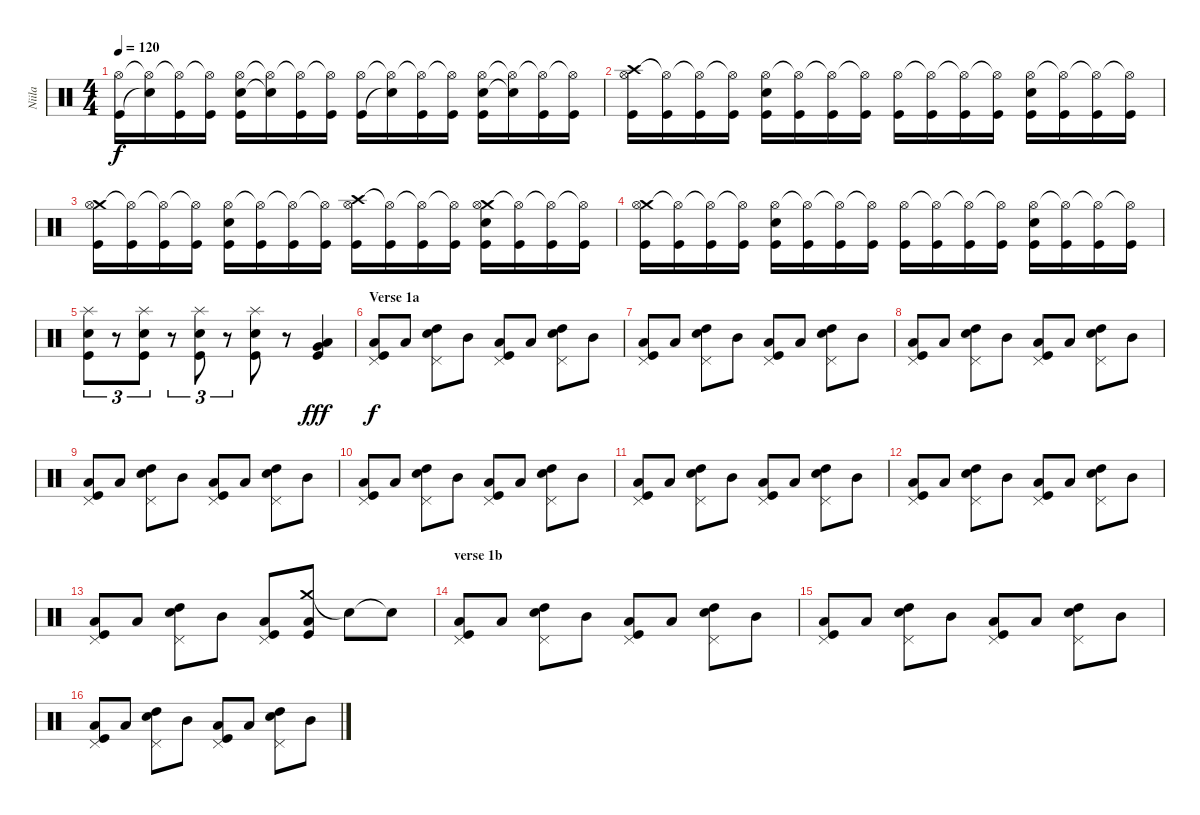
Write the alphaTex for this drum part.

\track ("Niila" "Niila") {instrument percussion}
\staff {score}
\articulation defaults
\ts (4 4)
\tempo 120
\clef neutral
\ks c
("Hi-Hat (open)" "Kick (hit)").16{dy f} ("Hi-Hat (open)"{t} "Snare (hit)"{t}).16 ("Hi-Hat (open)"{t} "Kick (hit)").16 ("Hi-Hat (open)"{t} "Kick (hit)").16 ("Hi-Hat (open)" "Snare (hit) 2" "Kick (hit)").16 ("Hi-Hat (open)"{t} "Snare (hit)"{t}).16 ("Hi-Hat (open)"{t} "Kick (hit)").16 ("Hi-Hat (open)"{t} "Kick (hit)").16 ("Hi-Hat (open)" "Kick (hit)").16 ("Hi-Hat (open)"{t} "Snare (hit)"{t}).16 ("Hi-Hat (open)"{t} "Kick (hit)").16 ("Hi-Hat (open)"{t} "Kick (hit)").16 ("Hi-Hat (open)" "Snare (hit) 2" "Kick (hit)").16 ("Hi-Hat (open)"{t} "Snare (hit)"{t}).16 ("Hi-Hat (open)"{t} "Kick (hit)").16 ("Hi-Hat (open)"{t} "Kick (hit)").16 |
("Crash high (hit)" "Hi-Hat (open)" "Kick (hit)").16 ("Hi-Hat (open)"{t} "Kick (hit)").16 ("Hi-Hat (open)"{t} "Kick (hit)").16 ("Hi-Hat (open)"{t} "Kick (hit)").16 ("Hi-Hat (open)" "Snare (hit) 2" "Kick (hit)").16 ("Hi-Hat (open)"{t} "Kick (hit)").16 ("Hi-Hat (open)"{t} "Kick (hit)").16 ("Hi-Hat (open)"{t} "Kick (hit)").16 ("Hi-Hat (open)" "Kick (hit)").16 ("Hi-Hat (open)"{t} "Kick (hit)").16 ("Hi-Hat (open)"{t} "Kick (hit)").16 ("Hi-Hat (open)"{t} "Kick (hit)").16 ("Hi-Hat (open)" "Snare (hit) 2" "Kick (hit)").16 ("Hi-Hat (open)"{t} "Kick (hit)").16 ("Hi-Hat (open)"{t} "Kick (hit)").16 ("Hi-Hat (open)"{t} "Kick (hit)").16 |
("Crash medium (hit)" "Hi-Hat (open)" "Kick (hit)").16 ("Hi-Hat (open)"{t} "Kick (hit)").16 ("Hi-Hat (open)"{t} "Kick (hit)").16 ("Hi-Hat (open)"{t} "Kick (hit)").16 ("Hi-Hat (open)" "Snare (hit) 2" "Kick (hit)").16 ("Hi-Hat (open)"{t} "Kick (hit)").16 ("Hi-Hat (open)"{t} "Kick (hit)").16 ("Hi-Hat (open)"{t} "Kick (hit)").16 ("Crash high (hit)" "Hi-Hat (open)" "Kick (hit)").16 ("Hi-Hat (open)"{t} "Kick (hit)").16 ("Hi-Hat (open)"{t} "Kick (hit)").16 ("Hi-Hat (open)"{t} "Kick (hit)").16 ("Crash medium (hit)" "Hi-Hat (open)" "Snare (hit) 2" "Kick (hit)").16 ("Hi-Hat (open)"{t} "Kick (hit)").16 ("Hi-Hat (open)"{t} "Kick (hit)").16 ("Hi-Hat (open)"{t} "Kick (hit)").16 |
("Crash medium (hit)" "Hi-Hat (open)" "Kick (hit)").16 ("Hi-Hat (open)"{t} "Kick (hit)").16 ("Hi-Hat (open)"{t} "Kick (hit)").16 ("Hi-Hat (open)"{t} "Kick (hit)").16 ("Hi-Hat (open)" "Snare (hit) 2" "Kick (hit)").16 ("Hi-Hat (open)"{t} "Kick (hit)").16 ("Hi-Hat (open)"{t} "Kick (hit)").16 ("Hi-Hat (open)"{t} "Kick (hit)").16 ("Hi-Hat (open)" "Kick (hit)").16 ("Hi-Hat (open)"{t} "Kick (hit)").16 ("Hi-Hat (open)"{t} "Kick (hit)").16 ("Hi-Hat (open)"{t} "Kick (hit)").16 ("Hi-Hat (open)" "Snare (hit) 2" "Kick (hit)").16 ("Hi-Hat (open)"{t} "Kick (hit)").16 ("Hi-Hat (open)"{t} "Kick (hit)").16 ("Hi-Hat (open)"{t} "Kick (hit)").16 |
("Splash (hit)" "Snare (hit) 2" "Kick (hit)").8{tu (3 2)} r.8{tu (3 2)} ("Splash (hit)" "Snare (hit) 2" "Kick (hit)").8{tu (3 2)} r.8{tu (3 2)} ("Splash (hit)" "Snare (hit) 2" "Kick (hit)").8{tu (3 2)} r.8{tu (3 2)} ("Splash (hit)" "Snare (hit) 2" "Kick (hit)").8 r.8 ("Low Tom (hit)" "Kick (hit)" "Very Low Tom (hit)").4{dy fff volume 10} |
\section ("" "Verse 1a")
("Pedal Hi-Hat (hit)" "Low Tom (hit)" "Kick (hit)").8{dy f volume 10} "Low Tom (hit)".8 ("Pedal Hi-Hat (hit)" "High Tom (hit)" "Snare (hit) 2").8 "Mid Tom (hit)".8 ("Pedal Hi-Hat (hit)" "Low Tom (hit)" "Kick (hit)").8 "Low Tom (hit)".8 ("Pedal Hi-Hat (hit)" "High Tom (hit)" "Snare (hit) 2").8 "Mid Tom (hit)".8 |
("Pedal Hi-Hat (hit)" "Low Tom (hit)" "Kick (hit)").8{volume 10} "Low Tom (hit)".8 ("Pedal Hi-Hat (hit)" "High Tom (hit)" "Snare (hit) 2").8 "Mid Tom (hit)".8 ("Pedal Hi-Hat (hit)" "Low Tom (hit)" "Kick (hit)").8 "Low Tom (hit)".8 ("Pedal Hi-Hat (hit)" "High Tom (hit)" "Snare (hit) 2").8 "Mid Tom (hit)".8 |
("Pedal Hi-Hat (hit)" "Low Tom (hit)" "Kick (hit)").8{volume 10} "Low Tom (hit)".8 ("Pedal Hi-Hat (hit)" "High Tom (hit)" "Snare (hit) 2").8 "Mid Tom (hit)".8 ("Pedal Hi-Hat (hit)" "Low Tom (hit)" "Kick (hit)").8 "Low Tom (hit)".8 ("Pedal Hi-Hat (hit)" "High Tom (hit)" "Snare (hit) 2").8 "Mid Tom (hit)".8 |
("Pedal Hi-Hat (hit)" "Low Tom (hit)" "Kick (hit)").8{volume 10} "Low Tom (hit)".8 ("Pedal Hi-Hat (hit)" "High Tom (hit)" "Snare (hit) 2").8 "Mid Tom (hit)".8 ("Pedal Hi-Hat (hit)" "Low Tom (hit)" "Kick (hit)").8 "Low Tom (hit)".8 ("Pedal Hi-Hat (hit)" "High Tom (hit)" "Snare (hit) 2").8 "Mid Tom (hit)".8 |
("Pedal Hi-Hat (hit)" "Low Tom (hit)" "Kick (hit)").8{volume 10} "Low Tom (hit)".8 ("Pedal Hi-Hat (hit)" "High Tom (hit)" "Snare (hit) 2").8 "Mid Tom (hit)".8 ("Pedal Hi-Hat (hit)" "Low Tom (hit)" "Kick (hit)").8 "Low Tom (hit)".8 ("Pedal Hi-Hat (hit)" "High Tom (hit)" "Snare (hit) 2").8 "Mid Tom (hit)".8 |
("Pedal Hi-Hat (hit)" "Low Tom (hit)" "Kick (hit)").8{volume 10} "Low Tom (hit)".8 ("Pedal Hi-Hat (hit)" "High Tom (hit)" "Snare (hit) 2").8 "Mid Tom (hit)".8 ("Pedal Hi-Hat (hit)" "Low Tom (hit)" "Kick (hit)").8 "Low Tom (hit)".8 ("Pedal Hi-Hat (hit)" "High Tom (hit)" "Snare (hit) 2").8 "Mid Tom (hit)".8 |
("Pedal Hi-Hat (hit)" "Low Tom (hit)" "Kick (hit)").8{volume 10} "Low Tom (hit)".8 ("Pedal Hi-Hat (hit)" "High Tom (hit)" "Snare (hit) 2").8 "Mid Tom (hit)".8 ("Pedal Hi-Hat (hit)" "Low Tom (hit)" "Kick (hit)").8 "Low Tom (hit)".8 ("Pedal Hi-Hat (hit)" "High Tom (hit)" "Snare (hit) 2").8 "Mid Tom (hit)".8 |
("Pedal Hi-Hat (hit)" "Low Tom (hit)" "Kick (hit)").8 "Low Tom (hit)".8 ("Pedal Hi-Hat (hit)" "High Tom (hit)" "Snare (hit) 2").8 "Mid Tom (hit)".8 ("Pedal Hi-Hat (hit)" "Low Tom (hit)" "Kick (hit)").8 ("Crash medium (hit)" "Low Tom (hit)" "Kick (hit)").8 "Snare (hit)"{t}.8 "Snare (hit)"{t}.8 |
\section ("" "verse 1b")
("Pedal Hi-Hat (hit)" "Low Tom (hit)" "Kick (hit)").8{volume 10} "Low Tom (hit)".8 ("Pedal Hi-Hat (hit)" "High Tom (hit)" "Snare (hit) 2").8 "Mid Tom (hit)".8 ("Pedal Hi-Hat (hit)" "Low Tom (hit)" "Kick (hit)").8 "Low Tom (hit)".8 ("Pedal Hi-Hat (hit)" "High Tom (hit)" "Snare (hit) 2").8 "Mid Tom (hit)".8 |
("Pedal Hi-Hat (hit)" "Low Tom (hit)" "Kick (hit)").8{volume 10} "Low Tom (hit)".8 ("Pedal Hi-Hat (hit)" "High Tom (hit)" "Snare (hit) 2").8 "Mid Tom (hit)".8 ("Pedal Hi-Hat (hit)" "Low Tom (hit)" "Kick (hit)").8 "Low Tom (hit)".8 ("Pedal Hi-Hat (hit)" "High Tom (hit)" "Snare (hit) 2").8 "Mid Tom (hit)".8 |
("Pedal Hi-Hat (hit)" "Low Tom (hit)" "Kick (hit)").8{volume 10} "Low Tom (hit)".8 ("Pedal Hi-Hat (hit)" "High Tom (hit)" "Snare (hit) 2").8 "Mid Tom (hit)".8 ("Pedal Hi-Hat (hit)" "Low Tom (hit)" "Kick (hit)").8 "Low Tom (hit)".8 ("Pedal Hi-Hat (hit)" "High Tom (hit)" "Snare (hit) 2").8 "Mid Tom (hit)".8
